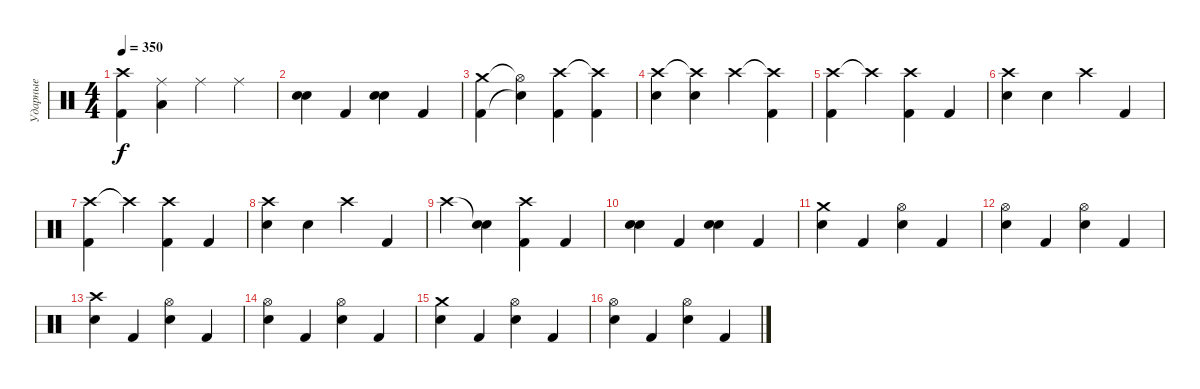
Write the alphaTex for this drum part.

\track ("Ударные" "Ударные") {instrument percussion}
\staff {score}
\articulation defaults
\ts (4 4)
\tempo 350
\clef neutral
\ks c
("Crash high (hit)" "Kick (hit) 2").4{dy f} ("Ride (middle)" "Low Tom (hit)").4 "Ride (middle)".4 "Ride (middle)".4 |
("Electric Snare (hit)" "Electric Snare (hit)").4 "Kick (hit) 2".4 ("Electric Snare (hit)" "Electric Snare (hit)").4 "Kick (hit) 2".4 |
("Crash medium (hit)" "Kick (hit) 2").4 ("Hi-Hat (open)"{t} "Snare (hit)"{t}).4 ("Crash high (hit)" "Kick (hit) 2").4 ("Crash high (hit)"{t} "Kick (hit) 2").4 |
("Crash high (hit)" "Electric Snare (hit)").4 ("Crash high (hit)"{t} "Electric Snare (hit)").4 "Crash high (hit)".4 ("Crash high (hit)"{t} "Kick (hit) 2").4 |
("Crash high (hit)" "Kick (hit) 2").4 "Crash high (hit)"{t}.4 ("Crash high (hit)" "Kick (hit) 2").4 "Kick (hit) 2".4 |
("Crash high (hit)" "Electric Snare (hit)").4 "Electric Snare (hit)".4 "Crash high (hit)".4 "Kick (hit) 2".4 |
("Crash high (hit)" "Kick (hit) 2").4 "Crash high (hit)"{t}.4 ("Crash high (hit)" "Kick (hit) 2").4 "Kick (hit) 2".4 |
("Crash high (hit)" "Electric Snare (hit)").4 "Electric Snare (hit)".4 "Crash high (hit)".4 "Kick (hit) 2".4 |
"Crash high (hit)".4 ("Snare (hit)"{t} "Electric Snare (hit)").4 ("Crash high (hit)" "Kick (hit) 2").4 "Kick (hit) 2".4 |
("Electric Snare (hit)" "Electric Snare (hit)").4 "Kick (hit) 2".4 ("Electric Snare (hit)" "Electric Snare (hit)").4 "Kick (hit) 2".4 |
("Crash medium (hit)" "Electric Snare (hit)").4 "Kick (hit) 2".4 ("Hi-Hat (open)" "Electric Snare (hit)").4 "Kick (hit) 2".4 |
("Hi-Hat (open)" "Electric Snare (hit)").4 "Kick (hit) 2".4 ("Hi-Hat (open)" "Electric Snare (hit)").4 "Kick (hit) 2".4 |
("Crash high (hit)" "Electric Snare (hit)").4 "Kick (hit) 2".4 ("Hi-Hat (open)" "Electric Snare (hit)").4 "Kick (hit) 2".4 |
("Hi-Hat (open)" "Electric Snare (hit)").4 "Kick (hit) 2".4 ("Hi-Hat (open)" "Electric Snare (hit)").4 "Kick (hit) 2".4 |
("Crash medium (hit)" "Electric Snare (hit)").4 "Kick (hit) 2".4 ("Hi-Hat (open)" "Electric Snare (hit)").4 "Kick (hit) 2".4 |
("Hi-Hat (open)" "Electric Snare (hit)").4 "Kick (hit) 2".4 ("Hi-Hat (open)" "Electric Snare (hit)").4 "Kick (hit) 2".4
